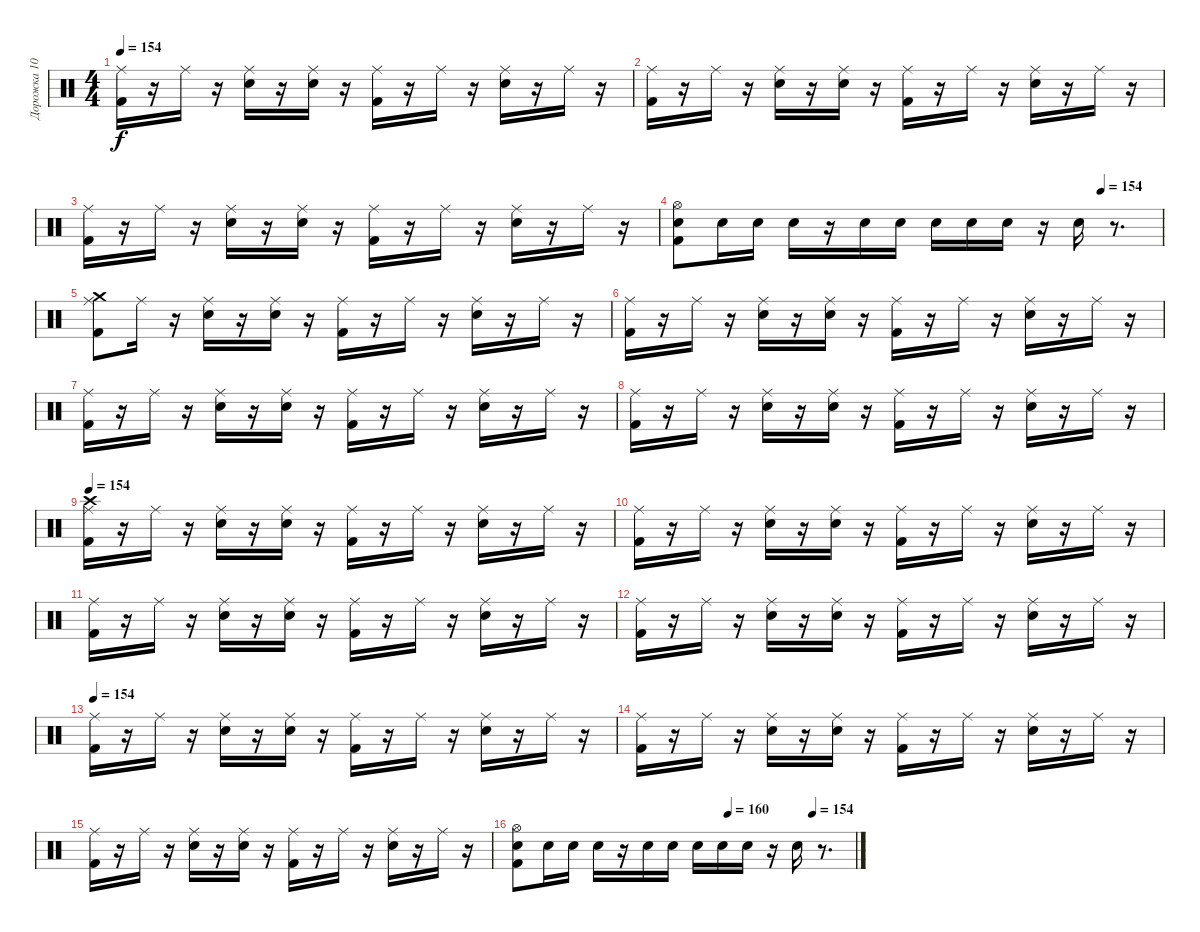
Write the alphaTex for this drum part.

\track ("Дорожка 10" "Дорожка 10") {instrument percussion}
\staff {score}
\articulation defaults
\ts (4 4)
\tempo 154
\clef neutral
\ks c
("Ride (middle)" "Kick (hit) 2").16{dy f} r.16 "Ride (middle)".16 r.16 ("Ride (middle)" "Electric Snare (hit)").16 r.16 ("Ride (middle)" "Electric Snare (hit)").16 r.16 ("Ride (middle)" "Kick (hit) 2").16 r.16 "Ride (middle)".16 r.16 ("Ride (middle)" "Electric Snare (hit)").16 r.16 "Ride (middle)".16 r.16 |
("Ride (middle)" "Kick (hit) 2").16 r.16 "Ride (middle)".16 r.16 ("Ride (middle)" "Electric Snare (hit)").16 r.16 ("Ride (middle)" "Electric Snare (hit)").16 r.16 ("Ride (middle)" "Kick (hit) 2").16 r.16 "Ride (middle)".16 r.16 ("Ride (middle)" "Electric Snare (hit)").16 r.16 "Ride (middle)".16 r.16 |
("Ride (middle)" "Kick (hit) 2").16 r.16 "Ride (middle)".16 r.16 ("Ride (middle)" "Electric Snare (hit)").16 r.16 ("Ride (middle)" "Electric Snare (hit)").16 r.16 ("Ride (middle)" "Kick (hit) 2").16 r.16 "Ride (middle)".16 r.16 ("Ride (middle)" "Electric Snare (hit)").16 r.16 "Ride (middle)".16 r.16 |
\tempo (154 0.875)
("Kick (hit) 2" "Electric Snare (hit)" "Hi-Hat (open)").8 "Electric Snare (hit)".16 "Electric Snare (hit)".16 "Electric Snare (hit)".16 r.16 "Electric Snare (hit)".16 "Electric Snare (hit)".16 "Electric Snare (hit)".16 "Electric Snare (hit)".16 "Electric Snare (hit)".16 r.16 "Electric Snare (hit)".16 r.8{d} |
("Crash medium (hit)" "Ride (middle)" "Kick (hit) 2").8 "Ride (middle)".16 r.16 ("Ride (middle)" "Electric Snare (hit)").16 r.16 ("Ride (middle)" "Electric Snare (hit)").16 r.16 ("Ride (middle)" "Kick (hit) 2").16 r.16 "Ride (middle)".16 r.16 ("Ride (middle)" "Electric Snare (hit)").16 r.16 "Ride (middle)".16 r.16 |
("Ride (middle)" "Kick (hit) 2").16 r.16 "Ride (middle)".16 r.16 ("Ride (middle)" "Electric Snare (hit)").16 r.16 ("Ride (middle)" "Electric Snare (hit)").16 r.16 ("Ride (middle)" "Kick (hit) 2").16 r.16 "Ride (middle)".16 r.16 ("Ride (middle)" "Electric Snare (hit)").16 r.16 "Ride (middle)".16 r.16 |
("Ride (middle)" "Kick (hit) 2").16 r.16 "Ride (middle)".16 r.16 ("Ride (middle)" "Electric Snare (hit)").16 r.16 ("Ride (middle)" "Electric Snare (hit)").16 r.16 ("Ride (middle)" "Kick (hit) 2").16 r.16 "Ride (middle)".16 r.16 ("Ride (middle)" "Electric Snare (hit)").16 r.16 "Ride (middle)".16 r.16 |
("Ride (middle)" "Kick (hit) 2").16 r.16 "Ride (middle)".16 r.16 ("Ride (middle)" "Electric Snare (hit)").16 r.16 ("Ride (middle)" "Electric Snare (hit)").16 r.16 ("Ride (middle)" "Kick (hit) 2").16 r.16 "Ride (middle)".16 r.16 ("Ride (middle)" "Electric Snare (hit)").16 r.16 "Ride (middle)".16 r.16 |
\tempo 154
("Ride (middle)" "Crash high (hit)" "Kick (hit) 2").16 r.16 "Ride (middle)".16 r.16 ("Ride (middle)" "Electric Snare (hit)").16 r.16 ("Ride (middle)" "Electric Snare (hit)").16 r.16 ("Ride (middle)" "Kick (hit) 2").16 r.16 "Ride (middle)".16 r.16 ("Ride (middle)" "Electric Snare (hit)").16 r.16 "Ride (middle)".16 r.16 |
("Ride (middle)" "Kick (hit) 2").16 r.16 "Ride (middle)".16 r.16 ("Ride (middle)" "Electric Snare (hit)").16 r.16 ("Ride (middle)" "Electric Snare (hit)").16 r.16 ("Ride (middle)" "Kick (hit) 2").16 r.16 "Ride (middle)".16 r.16 ("Ride (middle)" "Electric Snare (hit)").16 r.16 "Ride (middle)".16 r.16 |
("Ride (middle)" "Kick (hit) 2").16 r.16 "Ride (middle)".16 r.16 ("Ride (middle)" "Electric Snare (hit)").16 r.16 ("Ride (middle)" "Electric Snare (hit)").16 r.16 ("Ride (middle)" "Kick (hit) 2").16 r.16 "Ride (middle)".16 r.16 ("Ride (middle)" "Electric Snare (hit)").16 r.16 "Ride (middle)".16 r.16 |
("Ride (middle)" "Kick (hit) 2").16 r.16 "Ride (middle)".16 r.16 ("Ride (middle)" "Electric Snare (hit)").16 r.16 ("Ride (middle)" "Electric Snare (hit)").16 r.16 ("Ride (middle)" "Kick (hit) 2").16 r.16 "Ride (middle)".16 r.16 ("Ride (middle)" "Electric Snare (hit)").16 r.16 "Ride (middle)".16 r.16 |
\tempo 154
("Ride (middle)" "Kick (hit) 2").16 r.16 "Ride (middle)".16 r.16 ("Ride (middle)" "Electric Snare (hit)").16 r.16 ("Ride (middle)" "Electric Snare (hit)").16 r.16 ("Ride (middle)" "Kick (hit) 2").16 r.16 "Ride (middle)".16 r.16 ("Ride (middle)" "Electric Snare (hit)").16 r.16 "Ride (middle)".16 r.16 |
("Ride (middle)" "Kick (hit) 2").16 r.16 "Ride (middle)".16 r.16 ("Ride (middle)" "Electric Snare (hit)").16 r.16 ("Ride (middle)" "Electric Snare (hit)").16 r.16 ("Ride (middle)" "Kick (hit) 2").16 r.16 "Ride (middle)".16 r.16 ("Ride (middle)" "Electric Snare (hit)").16 r.16 "Ride (middle)".16 r.16 |
("Ride (middle)" "Kick (hit) 2").16 r.16 "Ride (middle)".16 r.16 ("Ride (middle)" "Electric Snare (hit)").16 r.16 ("Ride (middle)" "Electric Snare (hit)").16 r.16 ("Ride (middle)" "Kick (hit) 2").16 r.16 "Ride (middle)".16 r.16 ("Ride (middle)" "Electric Snare (hit)").16 r.16 "Ride (middle)".16 r.16 |
\tempo (160 0.625)
\tempo (154 0.875)
("Kick (hit) 2" "Electric Snare (hit)" "Hi-Hat (open)").8 "Electric Snare (hit)".16 "Electric Snare (hit)".16 "Electric Snare (hit)".16 r.16 "Electric Snare (hit)".16 "Electric Snare (hit)".16 "Electric Snare (hit)".16 "Electric Snare (hit)".16 "Electric Snare (hit)".16 r.16 "Electric Snare (hit)".16 r.8{d}
